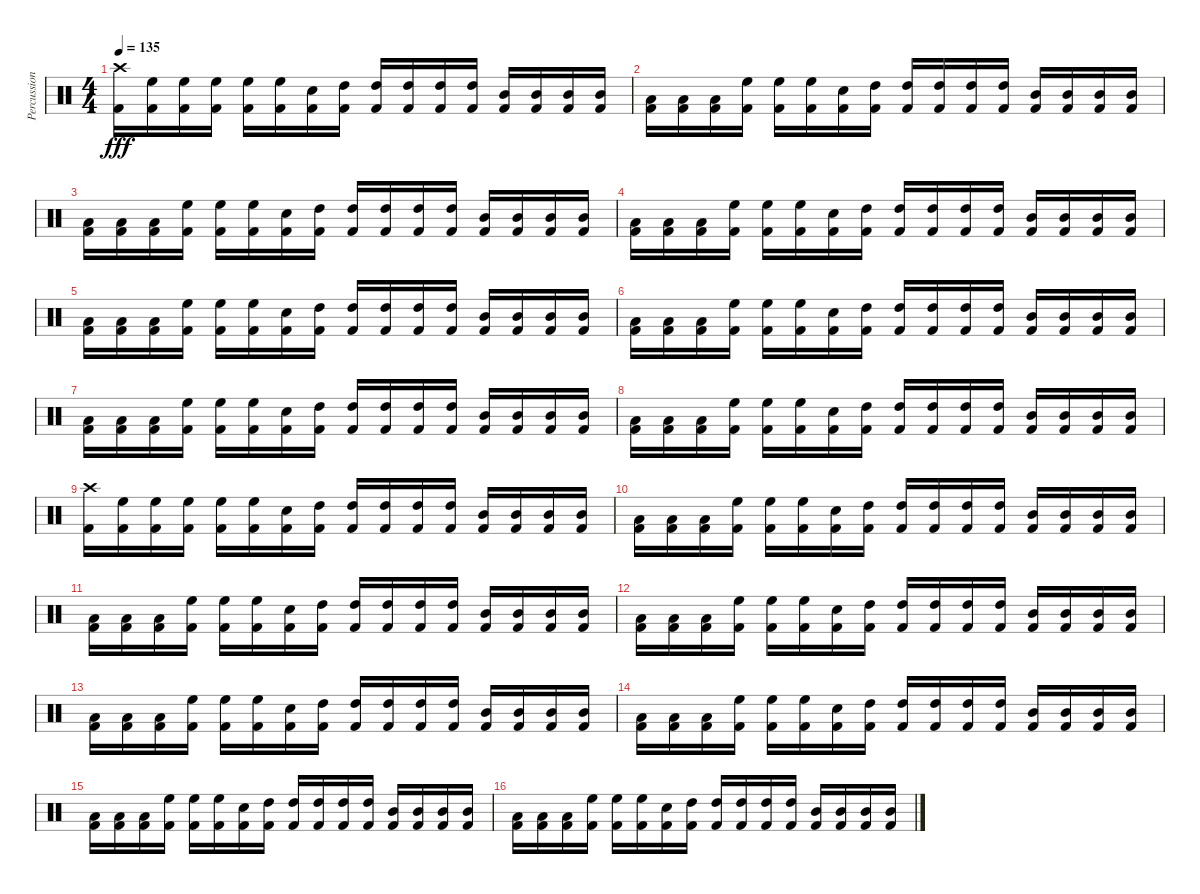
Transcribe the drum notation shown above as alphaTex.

\track ("Percussion" "Percussion") {instrument percussion}
\staff {score}
\articulation defaults
\ts (4 4)
\tempo 135
\clef neutral
\ks c
("Crash high (hit)" "Kick (hit) 2").16{dy fff} ("High Floor Tom (hit)" "Kick (hit) 2").16 ("High Floor Tom (hit)" "Kick (hit) 2").16 ("High Floor Tom (hit)" "Kick (hit) 2").16 ("High Floor Tom (hit)" "Kick (hit) 2").16 ("High Floor Tom (hit)" "Kick (hit) 2").16 ("Snare (hit) 2" "Kick (hit) 2").16 ("High Tom (hit)" "Kick (hit) 2").16 ("High Tom (hit)" "Kick (hit) 2").16 ("High Tom (hit)" "Kick (hit) 2").16 ("High Tom (hit)" "Kick (hit) 2").16 ("High Tom (hit)" "Kick (hit) 2").16 ("Mid Tom (hit)" "Kick (hit) 2").16 ("Mid Tom (hit)" "Kick (hit) 2").16 ("Mid Tom (hit)" "Kick (hit) 2").16 ("Mid Tom (hit)" "Kick (hit) 2").16 |
("Low Tom (hit)" "Kick (hit) 2").16 ("Low Tom (hit)" "Kick (hit) 2").16 ("Low Tom (hit)" "Kick (hit) 2").16 ("High Floor Tom (hit)" "Kick (hit) 2").16 ("High Floor Tom (hit)" "Kick (hit) 2").16 ("High Floor Tom (hit)" "Kick (hit) 2").16 ("Snare (hit) 2" "Kick (hit) 2").16 ("High Tom (hit)" "Kick (hit) 2").16 ("High Tom (hit)" "Kick (hit) 2").16 ("High Tom (hit)" "Kick (hit) 2").16 ("High Tom (hit)" "Kick (hit) 2").16 ("High Tom (hit)" "Kick (hit) 2").16 ("Mid Tom (hit)" "Kick (hit) 2").16 ("Mid Tom (hit)" "Kick (hit) 2").16 ("Mid Tom (hit)" "Kick (hit) 2").16 ("Mid Tom (hit)" "Kick (hit) 2").16 |
("Low Tom (hit)" "Kick (hit) 2").16 ("Low Tom (hit)" "Kick (hit) 2").16 ("Low Tom (hit)" "Kick (hit) 2").16 ("High Floor Tom (hit)" "Kick (hit) 2").16 ("High Floor Tom (hit)" "Kick (hit) 2").16 ("High Floor Tom (hit)" "Kick (hit) 2").16 ("Snare (hit) 2" "Kick (hit) 2").16 ("High Tom (hit)" "Kick (hit) 2").16 ("High Tom (hit)" "Kick (hit) 2").16 ("High Tom (hit)" "Kick (hit) 2").16 ("High Tom (hit)" "Kick (hit) 2").16 ("High Tom (hit)" "Kick (hit) 2").16 ("Mid Tom (hit)" "Kick (hit) 2").16 ("Mid Tom (hit)" "Kick (hit) 2").16 ("Mid Tom (hit)" "Kick (hit) 2").16 ("Mid Tom (hit)" "Kick (hit) 2").16 |
("Low Tom (hit)" "Kick (hit) 2").16 ("Low Tom (hit)" "Kick (hit) 2").16 ("Low Tom (hit)" "Kick (hit) 2").16 ("High Floor Tom (hit)" "Kick (hit) 2").16 ("High Floor Tom (hit)" "Kick (hit) 2").16 ("High Floor Tom (hit)" "Kick (hit) 2").16 ("Snare (hit) 2" "Kick (hit) 2").16 ("High Tom (hit)" "Kick (hit) 2").16 ("High Tom (hit)" "Kick (hit) 2").16 ("High Tom (hit)" "Kick (hit) 2").16 ("High Tom (hit)" "Kick (hit) 2").16 ("High Tom (hit)" "Kick (hit) 2").16 ("Mid Tom (hit)" "Kick (hit) 2").16 ("Mid Tom (hit)" "Kick (hit) 2").16 ("Mid Tom (hit)" "Kick (hit) 2").16 ("Mid Tom (hit)" "Kick (hit) 2").16 |
("Low Tom (hit)" "Kick (hit) 2").16 ("Low Tom (hit)" "Kick (hit) 2").16 ("Low Tom (hit)" "Kick (hit) 2").16 ("High Floor Tom (hit)" "Kick (hit) 2").16 ("High Floor Tom (hit)" "Kick (hit) 2").16 ("High Floor Tom (hit)" "Kick (hit) 2").16 ("Snare (hit) 2" "Kick (hit) 2").16 ("High Tom (hit)" "Kick (hit) 2").16 ("High Tom (hit)" "Kick (hit) 2").16 ("High Tom (hit)" "Kick (hit) 2").16 ("High Tom (hit)" "Kick (hit) 2").16 ("High Tom (hit)" "Kick (hit) 2").16 ("Mid Tom (hit)" "Kick (hit) 2").16 ("Mid Tom (hit)" "Kick (hit) 2").16 ("Mid Tom (hit)" "Kick (hit) 2").16 ("Mid Tom (hit)" "Kick (hit) 2").16 |
("Low Tom (hit)" "Kick (hit) 2").16 ("Low Tom (hit)" "Kick (hit) 2").16 ("Low Tom (hit)" "Kick (hit) 2").16 ("High Floor Tom (hit)" "Kick (hit) 2").16 ("High Floor Tom (hit)" "Kick (hit) 2").16 ("High Floor Tom (hit)" "Kick (hit) 2").16 ("Snare (hit) 2" "Kick (hit) 2").16 ("High Tom (hit)" "Kick (hit) 2").16 ("High Tom (hit)" "Kick (hit) 2").16 ("High Tom (hit)" "Kick (hit) 2").16 ("High Tom (hit)" "Kick (hit) 2").16 ("High Tom (hit)" "Kick (hit) 2").16 ("Mid Tom (hit)" "Kick (hit) 2").16 ("Mid Tom (hit)" "Kick (hit) 2").16 ("Mid Tom (hit)" "Kick (hit) 2").16 ("Mid Tom (hit)" "Kick (hit) 2").16 |
("Low Tom (hit)" "Kick (hit) 2").16 ("Low Tom (hit)" "Kick (hit) 2").16 ("Low Tom (hit)" "Kick (hit) 2").16 ("High Floor Tom (hit)" "Kick (hit) 2").16 ("High Floor Tom (hit)" "Kick (hit) 2").16 ("High Floor Tom (hit)" "Kick (hit) 2").16 ("Snare (hit) 2" "Kick (hit) 2").16 ("High Tom (hit)" "Kick (hit) 2").16 ("High Tom (hit)" "Kick (hit) 2").16 ("High Tom (hit)" "Kick (hit) 2").16 ("High Tom (hit)" "Kick (hit) 2").16 ("High Tom (hit)" "Kick (hit) 2").16 ("Mid Tom (hit)" "Kick (hit) 2").16 ("Mid Tom (hit)" "Kick (hit) 2").16 ("Mid Tom (hit)" "Kick (hit) 2").16 ("Mid Tom (hit)" "Kick (hit) 2").16 |
("Low Tom (hit)" "Kick (hit) 2").16 ("Low Tom (hit)" "Kick (hit) 2").16 ("Low Tom (hit)" "Kick (hit) 2").16 ("High Floor Tom (hit)" "Kick (hit) 2").16 ("High Floor Tom (hit)" "Kick (hit) 2").16 ("High Floor Tom (hit)" "Kick (hit) 2").16 ("Snare (hit) 2" "Kick (hit) 2").16 ("High Tom (hit)" "Kick (hit) 2").16 ("High Tom (hit)" "Kick (hit) 2").16 ("High Tom (hit)" "Kick (hit) 2").16 ("High Tom (hit)" "Kick (hit) 2").16 ("High Tom (hit)" "Kick (hit) 2").16 ("Mid Tom (hit)" "Kick (hit) 2").16 ("Mid Tom (hit)" "Kick (hit) 2").16 ("Mid Tom (hit)" "Kick (hit) 2").16 ("Mid Tom (hit)" "Kick (hit) 2").16 |
("Crash high (hit)" "Kick (hit) 2").16 ("High Floor Tom (hit)" "Kick (hit) 2").16 ("High Floor Tom (hit)" "Kick (hit) 2").16 ("High Floor Tom (hit)" "Kick (hit) 2").16 ("High Floor Tom (hit)" "Kick (hit) 2").16 ("High Floor Tom (hit)" "Kick (hit) 2").16 ("Snare (hit) 2" "Kick (hit) 2").16 ("High Tom (hit)" "Kick (hit) 2").16 ("High Tom (hit)" "Kick (hit) 2").16 ("High Tom (hit)" "Kick (hit) 2").16 ("High Tom (hit)" "Kick (hit) 2").16 ("High Tom (hit)" "Kick (hit) 2").16 ("Mid Tom (hit)" "Kick (hit) 2").16 ("Mid Tom (hit)" "Kick (hit) 2").16 ("Mid Tom (hit)" "Kick (hit) 2").16 ("Mid Tom (hit)" "Kick (hit) 2").16 |
("Low Tom (hit)" "Kick (hit) 2").16 ("Low Tom (hit)" "Kick (hit) 2").16 ("Low Tom (hit)" "Kick (hit) 2").16 ("High Floor Tom (hit)" "Kick (hit) 2").16 ("High Floor Tom (hit)" "Kick (hit) 2").16 ("High Floor Tom (hit)" "Kick (hit) 2").16 ("Snare (hit) 2" "Kick (hit) 2").16 ("High Tom (hit)" "Kick (hit) 2").16 ("High Tom (hit)" "Kick (hit) 2").16 ("High Tom (hit)" "Kick (hit) 2").16 ("High Tom (hit)" "Kick (hit) 2").16 ("High Tom (hit)" "Kick (hit) 2").16 ("Mid Tom (hit)" "Kick (hit) 2").16 ("Mid Tom (hit)" "Kick (hit) 2").16 ("Mid Tom (hit)" "Kick (hit) 2").16 ("Mid Tom (hit)" "Kick (hit) 2").16 |
("Low Tom (hit)" "Kick (hit) 2").16 ("Low Tom (hit)" "Kick (hit) 2").16 ("Low Tom (hit)" "Kick (hit) 2").16 ("High Floor Tom (hit)" "Kick (hit) 2").16 ("High Floor Tom (hit)" "Kick (hit) 2").16 ("High Floor Tom (hit)" "Kick (hit) 2").16 ("Snare (hit) 2" "Kick (hit) 2").16 ("High Tom (hit)" "Kick (hit) 2").16 ("High Tom (hit)" "Kick (hit) 2").16 ("High Tom (hit)" "Kick (hit) 2").16 ("High Tom (hit)" "Kick (hit) 2").16 ("High Tom (hit)" "Kick (hit) 2").16 ("Mid Tom (hit)" "Kick (hit) 2").16 ("Mid Tom (hit)" "Kick (hit) 2").16 ("Mid Tom (hit)" "Kick (hit) 2").16 ("Mid Tom (hit)" "Kick (hit) 2").16 |
("Low Tom (hit)" "Kick (hit) 2").16 ("Low Tom (hit)" "Kick (hit) 2").16 ("Low Tom (hit)" "Kick (hit) 2").16 ("High Floor Tom (hit)" "Kick (hit) 2").16 ("High Floor Tom (hit)" "Kick (hit) 2").16 ("High Floor Tom (hit)" "Kick (hit) 2").16 ("Snare (hit) 2" "Kick (hit) 2").16 ("High Tom (hit)" "Kick (hit) 2").16 ("High Tom (hit)" "Kick (hit) 2").16 ("High Tom (hit)" "Kick (hit) 2").16 ("High Tom (hit)" "Kick (hit) 2").16 ("High Tom (hit)" "Kick (hit) 2").16 ("Mid Tom (hit)" "Kick (hit) 2").16 ("Mid Tom (hit)" "Kick (hit) 2").16 ("Mid Tom (hit)" "Kick (hit) 2").16 ("Mid Tom (hit)" "Kick (hit) 2").16 |
("Low Tom (hit)" "Kick (hit) 2").16 ("Low Tom (hit)" "Kick (hit) 2").16 ("Low Tom (hit)" "Kick (hit) 2").16 ("High Floor Tom (hit)" "Kick (hit) 2").16 ("High Floor Tom (hit)" "Kick (hit) 2").16 ("High Floor Tom (hit)" "Kick (hit) 2").16 ("Snare (hit) 2" "Kick (hit) 2").16 ("High Tom (hit)" "Kick (hit) 2").16 ("High Tom (hit)" "Kick (hit) 2").16 ("High Tom (hit)" "Kick (hit) 2").16 ("High Tom (hit)" "Kick (hit) 2").16 ("High Tom (hit)" "Kick (hit) 2").16 ("Mid Tom (hit)" "Kick (hit) 2").16 ("Mid Tom (hit)" "Kick (hit) 2").16 ("Mid Tom (hit)" "Kick (hit) 2").16 ("Mid Tom (hit)" "Kick (hit) 2").16 |
("Low Tom (hit)" "Kick (hit) 2").16 ("Low Tom (hit)" "Kick (hit) 2").16 ("Low Tom (hit)" "Kick (hit) 2").16 ("High Floor Tom (hit)" "Kick (hit) 2").16 ("High Floor Tom (hit)" "Kick (hit) 2").16 ("High Floor Tom (hit)" "Kick (hit) 2").16 ("Snare (hit) 2" "Kick (hit) 2").16 ("High Tom (hit)" "Kick (hit) 2").16 ("High Tom (hit)" "Kick (hit) 2").16 ("High Tom (hit)" "Kick (hit) 2").16 ("High Tom (hit)" "Kick (hit) 2").16 ("High Tom (hit)" "Kick (hit) 2").16 ("Mid Tom (hit)" "Kick (hit) 2").16 ("Mid Tom (hit)" "Kick (hit) 2").16 ("Mid Tom (hit)" "Kick (hit) 2").16 ("Mid Tom (hit)" "Kick (hit) 2").16 |
("Low Tom (hit)" "Kick (hit) 2").16 ("Low Tom (hit)" "Kick (hit) 2").16 ("Low Tom (hit)" "Kick (hit) 2").16 ("High Floor Tom (hit)" "Kick (hit) 2").16 ("High Floor Tom (hit)" "Kick (hit) 2").16 ("High Floor Tom (hit)" "Kick (hit) 2").16 ("Snare (hit) 2" "Kick (hit) 2").16 ("High Tom (hit)" "Kick (hit) 2").16 ("High Tom (hit)" "Kick (hit) 2").16 ("High Tom (hit)" "Kick (hit) 2").16 ("High Tom (hit)" "Kick (hit) 2").16 ("High Tom (hit)" "Kick (hit) 2").16 ("Mid Tom (hit)" "Kick (hit) 2").16 ("Mid Tom (hit)" "Kick (hit) 2").16 ("Mid Tom (hit)" "Kick (hit) 2").16 ("Mid Tom (hit)" "Kick (hit) 2").16 |
("Low Tom (hit)" "Kick (hit) 2").16 ("Low Tom (hit)" "Kick (hit) 2").16 ("Low Tom (hit)" "Kick (hit) 2").16 ("High Floor Tom (hit)" "Kick (hit) 2").16 ("High Floor Tom (hit)" "Kick (hit) 2").16 ("High Floor Tom (hit)" "Kick (hit) 2").16 ("Snare (hit) 2" "Kick (hit) 2").16 ("High Tom (hit)" "Kick (hit) 2").16 ("High Tom (hit)" "Kick (hit) 2").16 ("High Tom (hit)" "Kick (hit) 2").16 ("High Tom (hit)" "Kick (hit) 2").16 ("High Tom (hit)" "Kick (hit) 2").16 ("Mid Tom (hit)" "Kick (hit) 2").16 ("Mid Tom (hit)" "Kick (hit) 2").16 ("Mid Tom (hit)" "Kick (hit) 2").16 ("Mid Tom (hit)" "Kick (hit) 2").16
